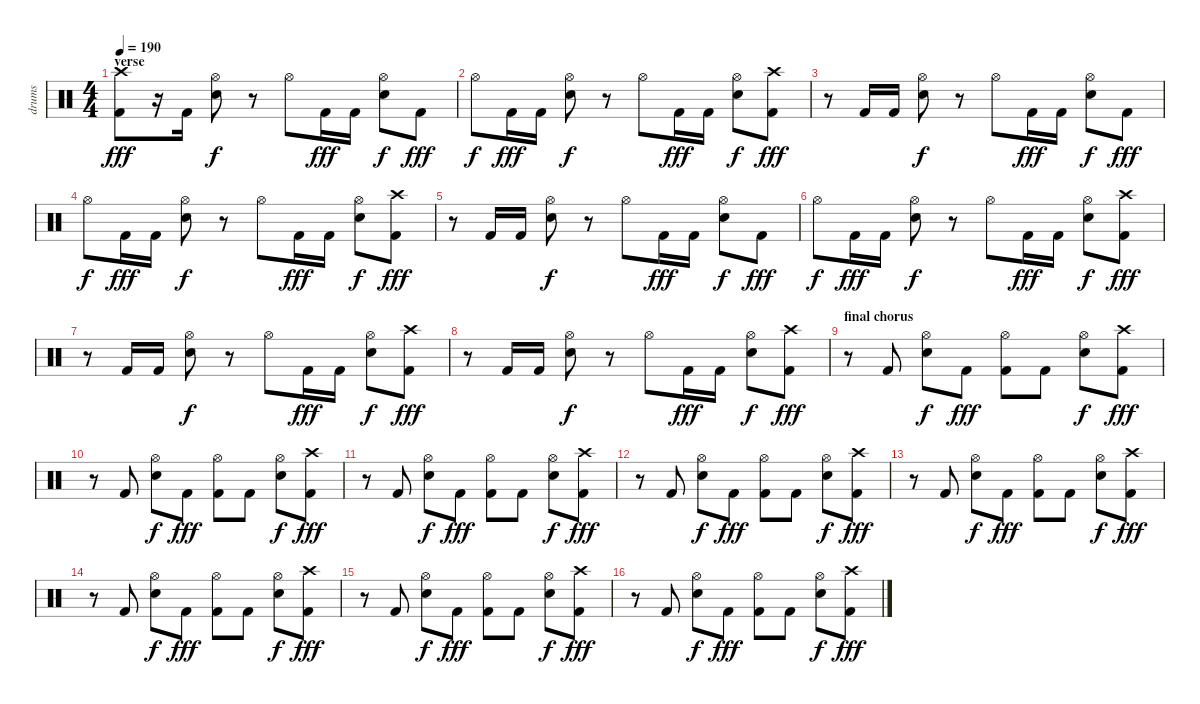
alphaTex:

\track ("drums" "drums") {instrument percussion}
\staff {score}
\articulation defaults
\ts (4 4)
\section ("" "verse")
\tempo 190
\clef neutral
\ks c
("Crash high (hit)" "Kick (hit) 2").8{dy fff} r.16 "Kick (hit) 2".16 ("Hi-Hat (open)" "Snare (hit) 2").8{dy f} r.8 "Hi-Hat (open)".8 "Kick (hit) 2".16{dy fff} "Kick (hit) 2".16 ("Hi-Hat (open)" "Snare (hit) 2").8{dy f} "Kick (hit) 2".8{dy fff} |
"Hi-Hat (open)".8{dy f} "Kick (hit) 2".16{dy fff} "Kick (hit) 2".16 ("Hi-Hat (open)" "Snare (hit) 2").8{dy f} r.8 "Hi-Hat (open)".8 "Kick (hit) 2".16{dy fff} "Kick (hit) 2".16 ("Hi-Hat (open)" "Snare (hit) 2").8{dy f} ("Crash high (hit)" "Kick (hit) 2").8{dy fff} |
r.8 "Kick (hit) 2".16 "Kick (hit) 2".16 ("Hi-Hat (open)" "Snare (hit) 2").8{dy f} r.8 "Hi-Hat (open)".8 "Kick (hit) 2".16{dy fff} "Kick (hit) 2".16 ("Hi-Hat (open)" "Snare (hit) 2").8{dy f} "Kick (hit) 2".8{dy fff} |
"Hi-Hat (open)".8{dy f} "Kick (hit) 2".16{dy fff} "Kick (hit) 2".16 ("Hi-Hat (open)" "Snare (hit) 2").8{dy f} r.8 "Hi-Hat (open)".8 "Kick (hit) 2".16{dy fff} "Kick (hit) 2".16 ("Hi-Hat (open)" "Snare (hit) 2").8{dy f} ("Crash high (hit)" "Kick (hit) 2").8{dy fff} |
r.8 "Kick (hit) 2".16 "Kick (hit) 2".16 ("Hi-Hat (open)" "Snare (hit) 2").8{dy f} r.8 "Hi-Hat (open)".8 "Kick (hit) 2".16{dy fff} "Kick (hit) 2".16 ("Hi-Hat (open)" "Snare (hit) 2").8{dy f} "Kick (hit) 2".8{dy fff} |
"Hi-Hat (open)".8{dy f} "Kick (hit) 2".16{dy fff} "Kick (hit) 2".16 ("Hi-Hat (open)" "Snare (hit) 2").8{dy f} r.8 "Hi-Hat (open)".8 "Kick (hit) 2".16{dy fff} "Kick (hit) 2".16 ("Hi-Hat (open)" "Snare (hit) 2").8{dy f} ("Crash high (hit)" "Kick (hit) 2").8{dy fff} |
r.8 "Kick (hit) 2".16 "Kick (hit) 2".16 ("Hi-Hat (open)" "Snare (hit) 2").8{dy f} r.8 "Hi-Hat (open)".8 "Kick (hit) 2".16{dy fff} "Kick (hit) 2".16 ("Hi-Hat (open)" "Snare (hit) 2").8{dy f} ("Crash high (hit)" "Kick (hit) 2").8{dy fff} |
r.8 "Kick (hit) 2".16 "Kick (hit) 2".16 ("Hi-Hat (open)" "Snare (hit) 2").8{dy f} r.8 "Hi-Hat (open)".8 "Kick (hit) 2".16{dy fff} "Kick (hit) 2".16 ("Hi-Hat (open)" "Snare (hit) 2").8{dy f} ("Crash high (hit)" "Kick (hit) 2").8{dy fff} |
\section ("" "final chorus")
r.8 "Kick (hit) 2".8 ("Hi-Hat (open)" "Snare (hit) 2").8{dy f} "Kick (hit) 2".8{dy fff} ("Hi-Hat (open)" "Kick (hit) 2").8 "Kick (hit) 2".8 ("Hi-Hat (open)" "Snare (hit) 2").8{dy f} ("Crash high (hit)" "Kick (hit) 2").8{dy fff} |
r.8 "Kick (hit) 2".8 ("Hi-Hat (open)" "Snare (hit) 2").8{dy f} "Kick (hit) 2".8{dy fff} ("Hi-Hat (open)" "Kick (hit) 2").8 "Kick (hit) 2".8 ("Hi-Hat (open)" "Snare (hit) 2").8{dy f} ("Crash high (hit)" "Kick (hit) 2").8{dy fff} |
r.8 "Kick (hit) 2".8 ("Hi-Hat (open)" "Snare (hit) 2").8{dy f} "Kick (hit) 2".8{dy fff} ("Hi-Hat (open)" "Kick (hit) 2").8 "Kick (hit) 2".8 ("Hi-Hat (open)" "Snare (hit) 2").8{dy f} ("Crash high (hit)" "Kick (hit) 2").8{dy fff} |
r.8 "Kick (hit) 2".8 ("Hi-Hat (open)" "Snare (hit) 2").8{dy f} "Kick (hit) 2".8{dy fff} ("Hi-Hat (open)" "Kick (hit) 2").8 "Kick (hit) 2".8 ("Hi-Hat (open)" "Snare (hit) 2").8{dy f} ("Crash high (hit)" "Kick (hit) 2").8{dy fff} |
r.8 "Kick (hit) 2".8 ("Hi-Hat (open)" "Snare (hit) 2").8{dy f} "Kick (hit) 2".8{dy fff} ("Hi-Hat (open)" "Kick (hit) 2").8 "Kick (hit) 2".8 ("Hi-Hat (open)" "Snare (hit) 2").8{dy f} ("Crash high (hit)" "Kick (hit) 2").8{dy fff} |
r.8 "Kick (hit) 2".8 ("Hi-Hat (open)" "Snare (hit) 2").8{dy f} "Kick (hit) 2".8{dy fff} ("Hi-Hat (open)" "Kick (hit) 2").8 "Kick (hit) 2".8 ("Hi-Hat (open)" "Snare (hit) 2").8{dy f} ("Crash high (hit)" "Kick (hit) 2").8{dy fff} |
r.8 "Kick (hit) 2".8 ("Hi-Hat (open)" "Snare (hit) 2").8{dy f} "Kick (hit) 2".8{dy fff} ("Hi-Hat (open)" "Kick (hit) 2").8 "Kick (hit) 2".8 ("Hi-Hat (open)" "Snare (hit) 2").8{dy f} ("Crash high (hit)" "Kick (hit) 2").8{dy fff} |
r.8 "Kick (hit) 2".8 ("Hi-Hat (open)" "Snare (hit) 2").8{dy f} "Kick (hit) 2".8{dy fff} ("Hi-Hat (open)" "Kick (hit) 2").8 "Kick (hit) 2".8 ("Hi-Hat (open)" "Snare (hit) 2").8{dy f} ("Crash high (hit)" "Kick (hit) 2").8{dy fff}
